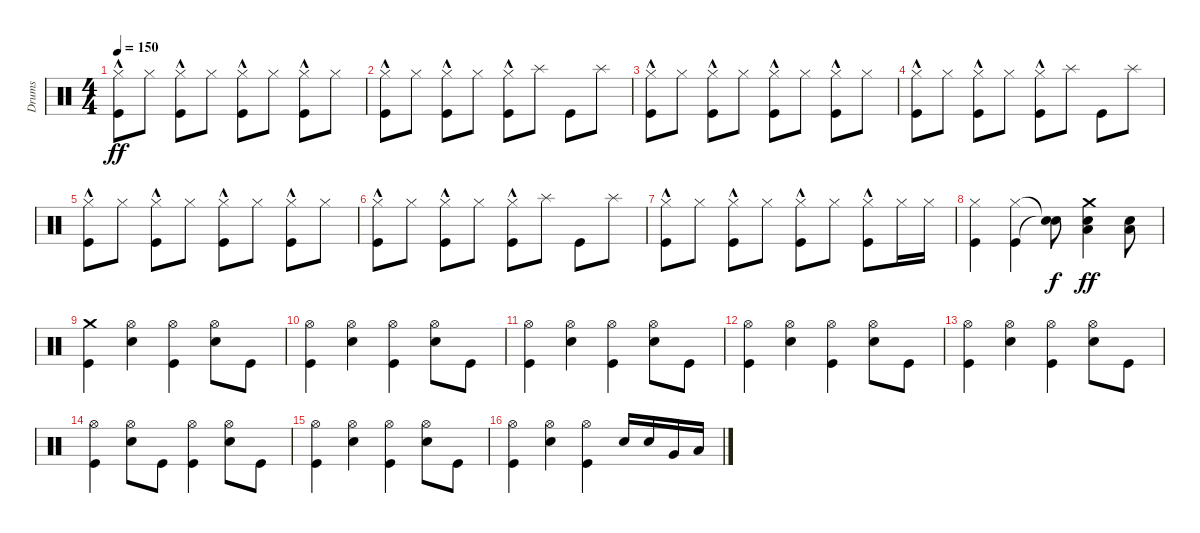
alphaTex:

\track ("Drums" "Drums") {instrument percussion}
\staff {score}
\articulation defaults
\ts (4 4)
\tempo 150
\clef neutral
\ks c
("Kick (hit)"{hac} "Hi-Hat (closed)").8{dy ff} "Hi-Hat (closed)".8 ("Kick (hit)"{hac} "Hi-Hat (closed)").8 "Hi-Hat (closed)".8 ("Kick (hit)"{hac} "Hi-Hat (closed)").8 "Hi-Hat (closed)".8 ("Kick (hit)"{hac} "Hi-Hat (closed)").8 "Hi-Hat (closed)".8 |
("Kick (hit)"{hac} "Hi-Hat (closed)").8 "Hi-Hat (closed)".8 ("Kick (hit)"{hac} "Hi-Hat (closed)").8 "Hi-Hat (closed)".8 ("Kick (hit)"{hac} "Hi-Hat (closed)").8 "Splash (hit)".8 "Kick (hit)".8 "Splash (hit)".8 |
("Kick (hit)"{hac} "Hi-Hat (closed)").8 "Hi-Hat (closed)".8 ("Kick (hit)"{hac} "Hi-Hat (closed)").8 "Hi-Hat (closed)".8 ("Kick (hit)"{hac} "Hi-Hat (closed)").8 "Hi-Hat (closed)".8 ("Kick (hit)"{hac} "Hi-Hat (closed)").8 "Hi-Hat (closed)".8 |
("Kick (hit)"{hac} "Hi-Hat (closed)").8 "Hi-Hat (closed)".8 ("Kick (hit)"{hac} "Hi-Hat (closed)").8 "Hi-Hat (closed)".8 ("Kick (hit)"{hac} "Hi-Hat (closed)").8 "Splash (hit)".8 "Kick (hit)".8 "Splash (hit)".8 |
("Kick (hit)"{hac} "Hi-Hat (closed)").8 "Hi-Hat (closed)".8 ("Kick (hit)"{hac} "Hi-Hat (closed)").8 "Hi-Hat (closed)".8 ("Kick (hit)"{hac} "Hi-Hat (closed)").8 "Hi-Hat (closed)".8 ("Kick (hit)"{hac} "Hi-Hat (closed)").8 "Hi-Hat (closed)".8 |
("Kick (hit)"{hac} "Hi-Hat (closed)").8 "Hi-Hat (closed)".8 ("Kick (hit)"{hac} "Hi-Hat (closed)").8 "Hi-Hat (closed)".8 ("Kick (hit)"{hac} "Hi-Hat (closed)").8 "Splash (hit)".8 "Kick (hit)".8 "Splash (hit)".8 |
("Kick (hit)"{hac} "Hi-Hat (closed)").8 "Hi-Hat (closed)".8 ("Kick (hit)"{hac} "Hi-Hat (closed)").8 "Hi-Hat (closed)".8 ("Kick (hit)"{hac} "Hi-Hat (closed)").8 "Hi-Hat (closed)".8 ("Kick (hit)"{hac} "Hi-Hat (closed)").8 "Hi-Hat (closed)".16 "Hi-Hat (closed)".16 |
("Kick (hit)" "Hi-Hat (closed)").4 ("Kick (hit)" "Hi-Hat (closed)").4 ("Snare (hit)"{t} "Snare (hit)"{t}).8{dy f} ("Electric Snare (hit)" "Low Tom (hit)" "Crash medium (hit)").4{dy ff} ("Electric Snare (hit)" "Low Tom (hit)").8 |
("Kick (hit)" "Crash medium (hit)").4 ("Electric Snare (hit)" "Hi-Hat (open)").4 ("Kick (hit)" "Hi-Hat (open)").4 ("Electric Snare (hit)" "Hi-Hat (open)").8 "Kick (hit)".8 |
("Kick (hit)" "Hi-Hat (open)").4 ("Electric Snare (hit)" "Hi-Hat (open)").4 ("Kick (hit)" "Hi-Hat (open)").4 ("Electric Snare (hit)" "Hi-Hat (open)").8 "Kick (hit)".8 |
("Kick (hit)" "Hi-Hat (open)").4 ("Electric Snare (hit)" "Hi-Hat (open)").4 ("Kick (hit)" "Hi-Hat (open)").4 ("Electric Snare (hit)" "Hi-Hat (open)").8 "Kick (hit)".8 |
("Kick (hit)" "Hi-Hat (open)").4 ("Electric Snare (hit)" "Hi-Hat (open)").4 ("Kick (hit)" "Hi-Hat (open)").4 ("Electric Snare (hit)" "Hi-Hat (open)").8 "Kick (hit)".8 |
("Kick (hit)" "Hi-Hat (open)").4 ("Electric Snare (hit)" "Hi-Hat (open)").4 ("Kick (hit)" "Hi-Hat (open)").4 ("Electric Snare (hit)" "Hi-Hat (open)").8 "Kick (hit)".8 |
("Kick (hit)" "Hi-Hat (open)").4 ("Electric Snare (hit)" "Hi-Hat (open)").8 "Kick (hit)".8 ("Kick (hit)" "Hi-Hat (open)").4 ("Electric Snare (hit)" "Hi-Hat (open)").8 "Kick (hit)".8 |
("Kick (hit)" "Hi-Hat (open)").4 ("Electric Snare (hit)" "Hi-Hat (open)").4 ("Kick (hit)" "Hi-Hat (open)").4 ("Electric Snare (hit)" "Hi-Hat (open)").8 "Kick (hit)".8 |
("Kick (hit)" "Hi-Hat (open)").4 ("Electric Snare (hit)" "Hi-Hat (open)").4 ("Kick (hit)" "Hi-Hat (open)").4 "Electric Snare (hit)".16 "Electric Snare (hit)".16 "Very Low Tom (hit)".16 "Low Floor Tom (hit)".16
